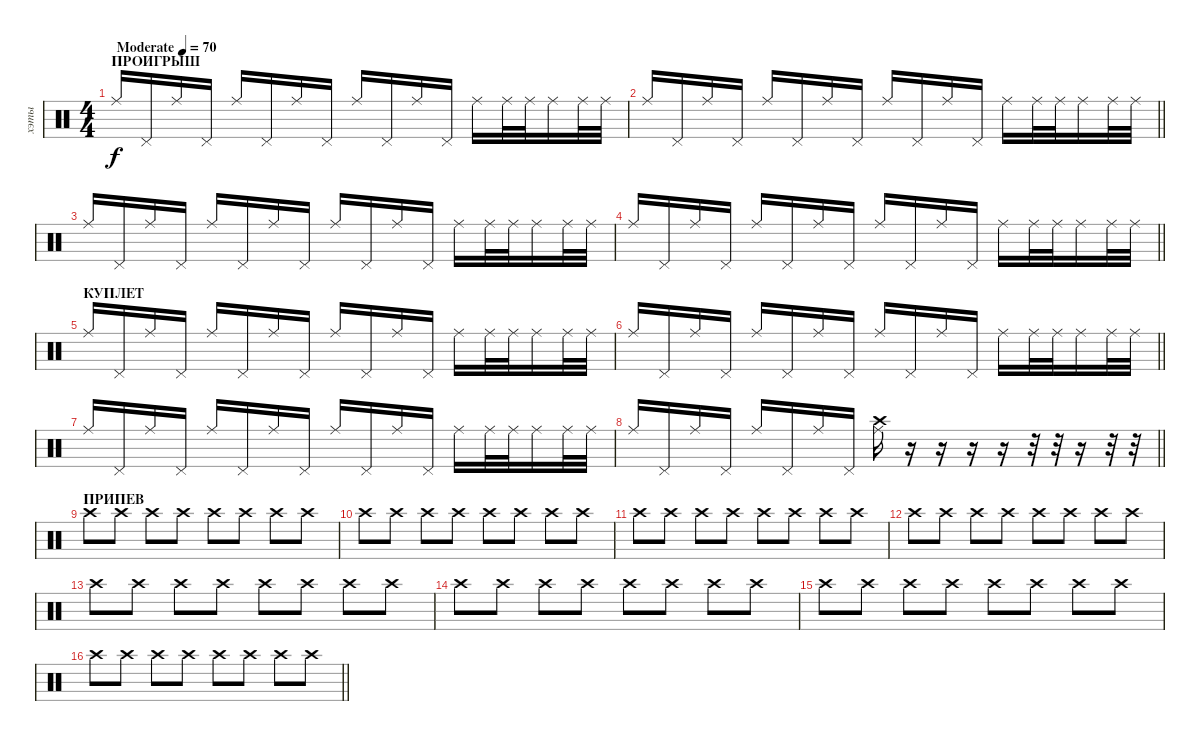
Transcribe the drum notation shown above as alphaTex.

\track ("хэты" "хэты") {instrument percussion}
\staff {score}
\articulation defaults
\ts (4 4)
\section ("" "ПРОИГРЫШ")
\tempo (70 "Moderate")
\clef neutral
\ks c "Ride (middle)".16{dy f} "Pedal Hi-Hat (hit)".16 "Ride (middle)".16 "Pedal Hi-Hat (hit)".16 "Ride (middle)".16 "Pedal Hi-Hat (hit)".16 "Ride (middle)".16 "Pedal Hi-Hat (hit)".16 "Ride (middle)".16 "Pedal Hi-Hat (hit)".16 "Ride (middle)".16 "Pedal Hi-Hat (hit)".16 "Ride (middle)".16 "Ride (middle)".32 "Ride (middle)".32 "Ride (middle)".16 "Ride (middle)".32 "Ride (middle)".32
|
\barLineRight lightlight "Ride (middle)".16 "Pedal Hi-Hat (hit)".16 "Ride (middle)".16 "Pedal Hi-Hat (hit)".16 "Ride (middle)".16 "Pedal Hi-Hat (hit)".16 "Ride (middle)".16 "Pedal Hi-Hat (hit)".16 "Ride (middle)".16 "Pedal Hi-Hat (hit)".16 "Ride (middle)".16 "Pedal Hi-Hat (hit)".16 "Ride (middle)".16 "Ride (middle)".32 "Ride (middle)".32 "Ride (middle)".16 "Ride (middle)".32 "Ride (middle)".32
|
\section ("" "")
"Ride (middle)".16 "Pedal Hi-Hat (hit)".16 "Ride (middle)".16 "Pedal Hi-Hat (hit)".16 "Ride (middle)".16 "Pedal Hi-Hat (hit)".16 "Ride (middle)".16 "Pedal Hi-Hat (hit)".16 "Ride (middle)".16 "Pedal Hi-Hat (hit)".16 "Ride (middle)".16 "Pedal Hi-Hat (hit)".16 "Ride (middle)".16 "Ride (middle)".32 "Ride (middle)".32 "Ride (middle)".16 "Ride (middle)".32 "Ride (middle)".32 |
\barLineRight lightlight "Ride (middle)".16 "Pedal Hi-Hat (hit)".16 "Ride (middle)".16 "Pedal Hi-Hat (hit)".16 "Ride (middle)".16 "Pedal Hi-Hat (hit)".16 "Ride (middle)".16 "Pedal Hi-Hat (hit)".16 "Ride (middle)".16 "Pedal Hi-Hat (hit)".16 "Ride (middle)".16 "Pedal Hi-Hat (hit)".16 "Ride (middle)".16 "Ride (middle)".32 "Ride (middle)".32 "Ride (middle)".16 "Ride (middle)".32 "Ride (middle)".32
|
\section ("" "КУПЛЕТ")
"Ride (middle)".16 "Pedal Hi-Hat (hit)".16 "Ride (middle)".16 "Pedal Hi-Hat (hit)".16 "Ride (middle)".16 "Pedal Hi-Hat (hit)".16 "Ride (middle)".16 "Pedal Hi-Hat (hit)".16 "Ride (middle)".16 "Pedal Hi-Hat (hit)".16 "Ride (middle)".16 "Pedal Hi-Hat (hit)".16 "Ride (middle)".16 "Ride (middle)".32 "Ride (middle)".32 "Ride (middle)".16 "Ride (middle)".32 "Ride (middle)".32 |
\barLineRight lightlight "Ride (middle)".16 "Pedal Hi-Hat (hit)".16 "Ride (middle)".16 "Pedal Hi-Hat (hit)".16 "Ride (middle)".16 "Pedal Hi-Hat (hit)".16 "Ride (middle)".16 "Pedal Hi-Hat (hit)".16 "Ride (middle)".16 "Pedal Hi-Hat (hit)".16 "Ride (middle)".16 "Pedal Hi-Hat (hit)".16 "Ride (middle)".16 "Ride (middle)".32 "Ride (middle)".32 "Ride (middle)".16 "Ride (middle)".32 "Ride (middle)".32
|
"Ride (middle)".16 "Pedal Hi-Hat (hit)".16 "Ride (middle)".16 "Pedal Hi-Hat (hit)".16 "Ride (middle)".16 "Pedal Hi-Hat (hit)".16 "Ride (middle)".16 "Pedal Hi-Hat (hit)".16 "Ride (middle)".16 "Pedal Hi-Hat (hit)".16 "Ride (middle)".16 "Pedal Hi-Hat (hit)".16 "Ride (middle)".16 "Ride (middle)".32 "Ride (middle)".32 "Ride (middle)".16 "Ride (middle)".32 "Ride (middle)".32 |
\barLineRight lightlight "Ride (middle)".16 "Pedal Hi-Hat (hit)".16 "Ride (middle)".16 "Pedal Hi-Hat (hit)".16 "Ride (middle)".16 "Pedal Hi-Hat (hit)".16 "Ride (middle)".16 "Pedal Hi-Hat (hit)".16
("Crash high (hit)" "Ride (middle)").16 r.16 r.16 r.16 r.16 r.32 r.32 r.16 r.32 r.32 |
\section ("" "ПРИПЕВ")
"Crash high (hit)".8 "Crash high (hit)".8 "Crash high (hit)".8 "Crash high (hit)".8 "Crash high (hit)".8 "Crash high (hit)".8 "Crash high (hit)".8 "Crash high (hit)".8 |
"Crash high (hit)".8 "Crash high (hit)".8 "Crash high (hit)".8 "Crash high (hit)".8 "Crash high (hit)".8 "Crash high (hit)".8 "Crash high (hit)".8 "Crash high (hit)".8 |
"Crash high (hit)".8 "Crash high (hit)".8 "Crash high (hit)".8 "Crash high (hit)".8 "Crash high (hit)".8 "Crash high (hit)".8 "Crash high (hit)".8 "Crash high (hit)".8 |
"Crash high (hit)".8 "Crash high (hit)".8 "Crash high (hit)".8 "Crash high (hit)".8 "Crash high (hit)".8 "Crash high (hit)".8 "Crash high (hit)".8 "Crash high (hit)".8 |
"Crash high (hit)".8 "Crash high (hit)".8 "Crash high (hit)".8 "Crash high (hit)".8 "Crash high (hit)".8 "Crash high (hit)".8 "Crash high (hit)".8 "Crash high (hit)".8 |
"Crash high (hit)".8 "Crash high (hit)".8 "Crash high (hit)".8 "Crash high (hit)".8 "Crash high (hit)".8 "Crash high (hit)".8 "Crash high (hit)".8 "Crash high (hit)".8 |
"Crash high (hit)".8 "Crash high (hit)".8 "Crash high (hit)".8 "Crash high (hit)".8 "Crash high (hit)".8 "Crash high (hit)".8 "Crash high (hit)".8 "Crash high (hit)".8 |
\barLineRight lightlight "Crash high (hit)".8 "Crash high (hit)".8 "Crash high (hit)".8 "Crash high (hit)".8 "Crash high (hit)".8 "Crash high (hit)".8 "Crash high (hit)".8 "Crash high (hit)".8
